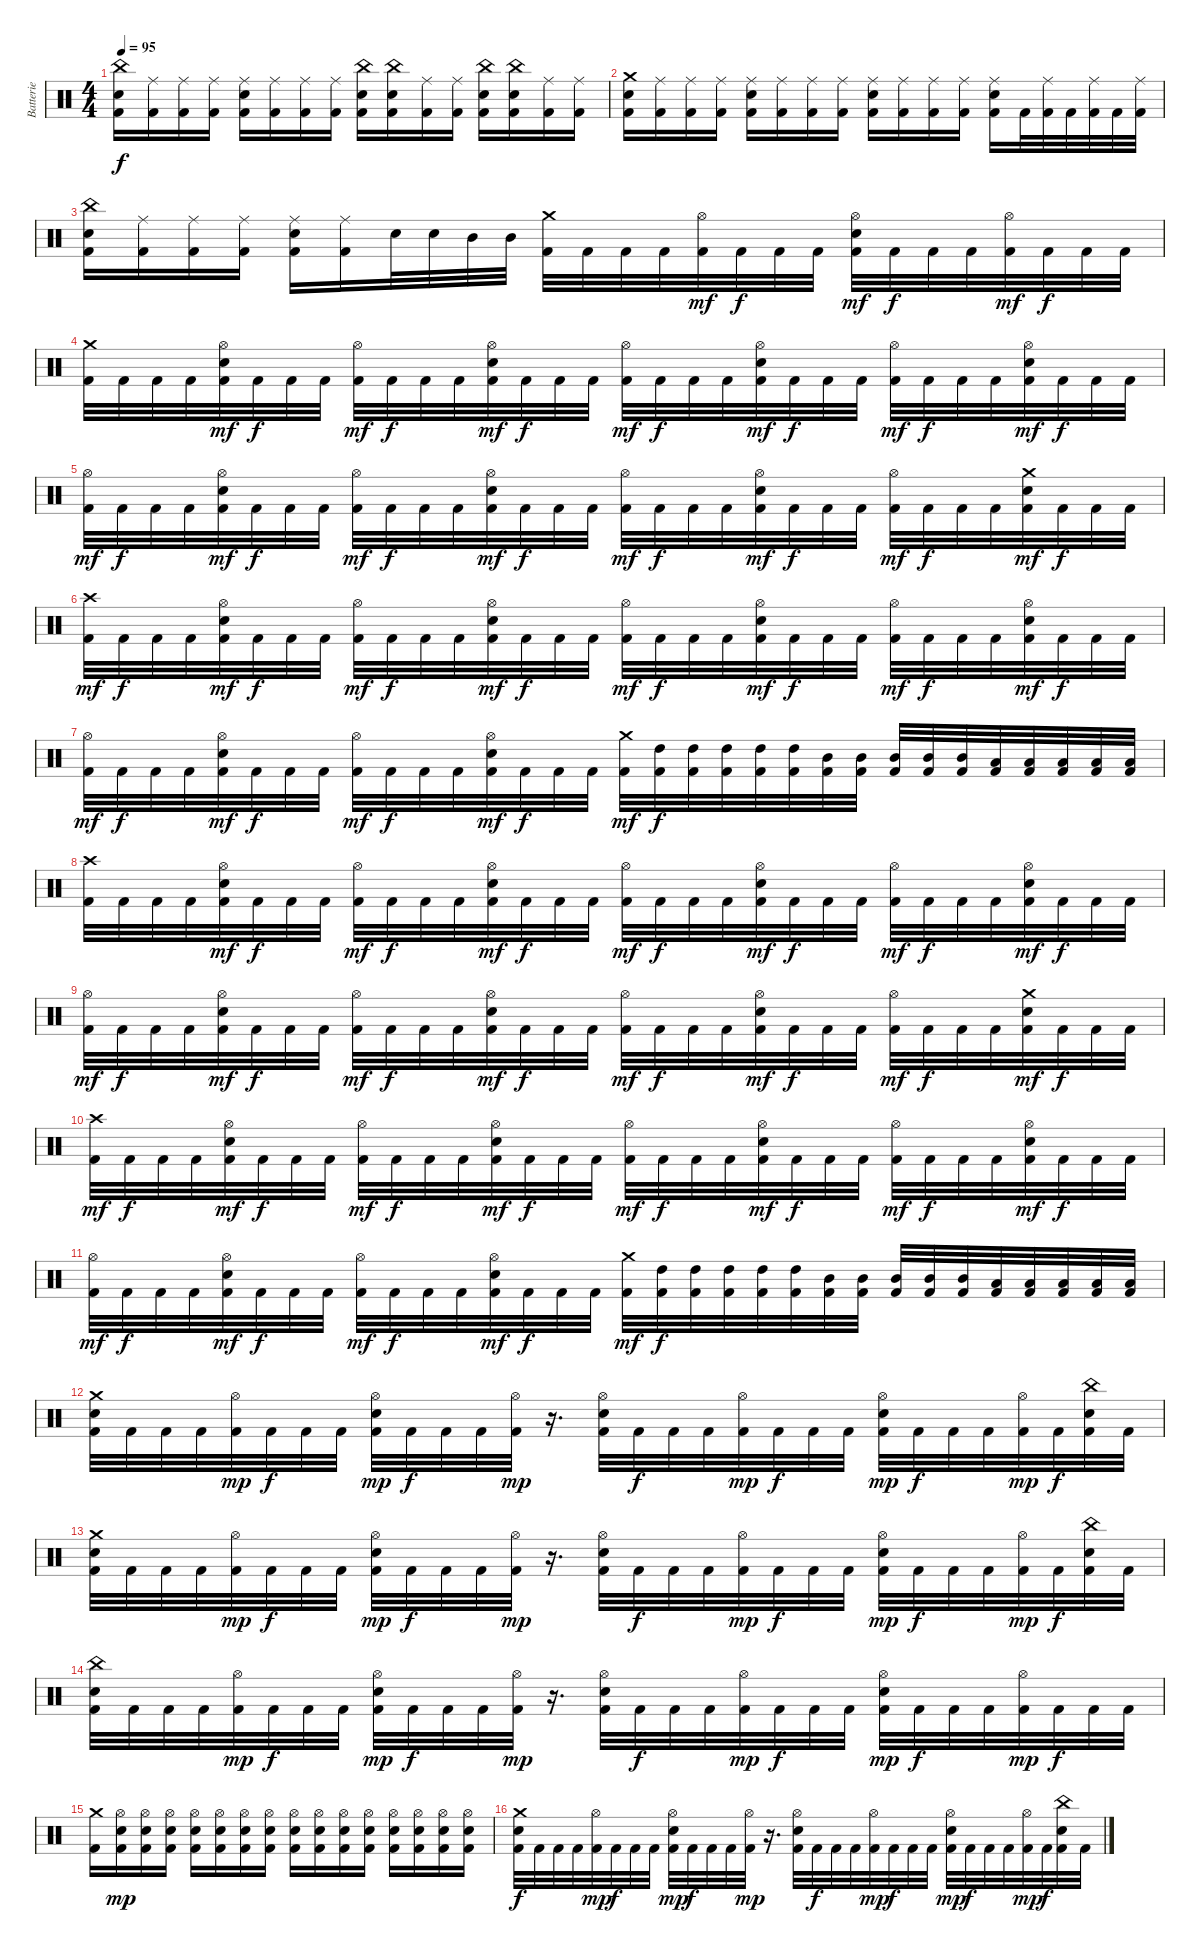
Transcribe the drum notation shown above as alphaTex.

\track ("Batterie" "Batterie") {instrument percussion}
\staff {score}
\articulation defaults
\ts (4 4)
\tempo 95
\clef neutral
\ks c
("China (hit)" "Electric Snare (hit)" "Kick (hit) 2").16{dy f} ("Ride (middle)" "Kick (hit) 2").16 ("Ride (middle)" "Kick (hit) 2").16 ("Ride (middle)" "Kick (hit) 2").16 ("Ride (middle)" "Electric Snare (hit)" "Kick (hit) 2").16 ("Ride (middle)" "Kick (hit) 2").16 ("Ride (middle)" "Kick (hit) 2").16 ("Ride (middle)" "Kick (hit) 2").16 ("China (hit)" "Electric Snare (hit)" "Kick (hit) 2").16 ("China (hit)" "Electric Snare (hit)" "Kick (hit) 2").16 ("Ride (middle)" "Kick (hit) 2").16 ("Ride (middle)" "Kick (hit) 2").16 ("China (hit)" "Electric Snare (hit)" "Kick (hit) 2").16 ("China (hit)" "Electric Snare (hit)" "Kick (hit) 2").16 ("Ride (middle)" "Kick (hit) 2").16 ("Ride (middle)" "Kick (hit) 2").16 |
("Crash medium (hit)" "Electric Snare (hit)" "Kick (hit) 2").16 ("Ride (middle)" "Kick (hit) 2").16 ("Ride (middle)" "Kick (hit) 2").16 ("Ride (middle)" "Kick (hit) 2").16 ("Ride (middle)" "Electric Snare (hit)" "Kick (hit) 2").16 ("Ride (middle)" "Kick (hit) 2").16 ("Ride (middle)" "Kick (hit) 2").16 ("Ride (middle)" "Kick (hit) 2").16 ("Ride (middle)" "Electric Snare (hit)" "Kick (hit) 2").16 ("Ride (middle)" "Kick (hit) 2").16 ("Ride (middle)" "Kick (hit) 2").16 ("Ride (middle)" "Kick (hit) 2").16 ("Ride (middle)" "Electric Snare (hit)" "Kick (hit) 2").16 "Kick (hit) 2".32 ("Ride (middle)" "Kick (hit) 2").32 "Kick (hit) 2".32 ("Ride (middle)" "Kick (hit) 2").32 "Kick (hit) 2".32 ("Ride (middle)" "Kick (hit) 2").32 |
("China (hit)" "Electric Snare (hit)" "Kick (hit) 2").16 ("Ride (middle)" "Kick (hit) 2").16 ("Ride (middle)" "Kick (hit) 2").16 ("Ride (middle)" "Kick (hit) 2").16 ("Ride (middle)" "Electric Snare (hit)" "Kick (hit) 2").16 ("Ride (middle)" "Kick (hit) 2").16 "Electric Snare (hit)".32 "Electric Snare (hit)".32 "Mid Tom (hit)".32 "Mid Tom (hit)".32 ("Crash medium (hit)" "Kick (hit) 2").32 "Kick (hit) 2".32 "Kick (hit) 2".32 "Kick (hit) 2".32 ("Hi-Hat (open)" "Kick (hit) 2").32{dy mf} "Kick (hit) 2".32{dy f} "Kick (hit) 2".32 "Kick (hit) 2".32 ("Hi-Hat (open)" "Electric Snare (hit)" "Kick (hit) 2").32{dy mf} "Kick (hit) 2".32{dy f} "Kick (hit) 2".32 "Kick (hit) 2".32 ("Hi-Hat (open)" "Kick (hit) 2").32{dy mf} "Kick (hit) 2".32{dy f} "Kick (hit) 2".32 "Kick (hit) 2".32 |
("Crash medium (hit)" "Kick (hit) 2").32 "Kick (hit) 2".32 "Kick (hit) 2".32 "Kick (hit) 2".32 ("Hi-Hat (open)" "Electric Snare (hit)" "Kick (hit) 2").32{dy mf} "Kick (hit) 2".32{dy f} "Kick (hit) 2".32 "Kick (hit) 2".32 ("Hi-Hat (open)" "Kick (hit) 2").32{dy mf} "Kick (hit) 2".32{dy f} "Kick (hit) 2".32 "Kick (hit) 2".32 ("Hi-Hat (open)" "Electric Snare (hit)" "Kick (hit) 2").32{dy mf} "Kick (hit) 2".32{dy f} "Kick (hit) 2".32 "Kick (hit) 2".32 ("Hi-Hat (open)" "Kick (hit) 2").32{dy mf} "Kick (hit) 2".32{dy f} "Kick (hit) 2".32 "Kick (hit) 2".32 ("Hi-Hat (open)" "Electric Snare (hit)" "Kick (hit) 2").32{dy mf} "Kick (hit) 2".32{dy f} "Kick (hit) 2".32 "Kick (hit) 2".32 ("Hi-Hat (open)" "Kick (hit) 2").32{dy mf} "Kick (hit) 2".32{dy f} "Kick (hit) 2".32 "Kick (hit) 2".32 ("Hi-Hat (open)" "Electric Snare (hit)" "Kick (hit) 2").32{dy mf} "Kick (hit) 2".32{dy f} "Kick (hit) 2".32 "Kick (hit) 2".32 |
("Hi-Hat (open)" "Kick (hit) 2").32{dy mf} "Kick (hit) 2".32{dy f} "Kick (hit) 2".32 "Kick (hit) 2".32 ("Hi-Hat (open)" "Electric Snare (hit)" "Kick (hit) 2").32{dy mf} "Kick (hit) 2".32{dy f} "Kick (hit) 2".32 "Kick (hit) 2".32 ("Hi-Hat (open)" "Kick (hit) 2").32{dy mf} "Kick (hit) 2".32{dy f} "Kick (hit) 2".32 "Kick (hit) 2".32 ("Hi-Hat (open)" "Electric Snare (hit)" "Kick (hit) 2").32{dy mf} "Kick (hit) 2".32{dy f} "Kick (hit) 2".32 "Kick (hit) 2".32 ("Hi-Hat (open)" "Kick (hit) 2").32{dy mf} "Kick (hit) 2".32{dy f} "Kick (hit) 2".32 "Kick (hit) 2".32 ("Hi-Hat (open)" "Electric Snare (hit)" "Kick (hit) 2").32{dy mf} "Kick (hit) 2".32{dy f} "Kick (hit) 2".32 "Kick (hit) 2".32 ("Hi-Hat (open)" "Kick (hit) 2").32{dy mf} "Kick (hit) 2".32{dy f} "Kick (hit) 2".32 "Kick (hit) 2".32 ("Crash medium (hit)" "Electric Snare (hit)" "Kick (hit) 2").32{dy mf} "Kick (hit) 2".32{dy f} "Kick (hit) 2".32 "Kick (hit) 2".32 |
("Crash high (hit)" "Kick (hit) 2").32{dy mf} "Kick (hit) 2".32{dy f} "Kick (hit) 2".32 "Kick (hit) 2".32 ("Hi-Hat (open)" "Electric Snare (hit)" "Kick (hit) 2").32{dy mf} "Kick (hit) 2".32{dy f} "Kick (hit) 2".32 "Kick (hit) 2".32 ("Hi-Hat (open)" "Kick (hit) 2").32{dy mf} "Kick (hit) 2".32{dy f} "Kick (hit) 2".32 "Kick (hit) 2".32 ("Hi-Hat (open)" "Electric Snare (hit)" "Kick (hit) 2").32{dy mf} "Kick (hit) 2".32{dy f} "Kick (hit) 2".32 "Kick (hit) 2".32 ("Hi-Hat (open)" "Kick (hit) 2").32{dy mf} "Kick (hit) 2".32{dy f} "Kick (hit) 2".32 "Kick (hit) 2".32 ("Hi-Hat (open)" "Electric Snare (hit)" "Kick (hit) 2").32{dy mf} "Kick (hit) 2".32{dy f} "Kick (hit) 2".32 "Kick (hit) 2".32 ("Hi-Hat (open)" "Kick (hit) 2").32{dy mf} "Kick (hit) 2".32{dy f} "Kick (hit) 2".32 "Kick (hit) 2".32 ("Hi-Hat (open)" "Electric Snare (hit)" "Kick (hit) 2").32{dy mf} "Kick (hit) 2".32{dy f} "Kick (hit) 2".32 "Kick (hit) 2".32 |
("Hi-Hat (open)" "Kick (hit) 2").32{dy mf} "Kick (hit) 2".32{dy f} "Kick (hit) 2".32 "Kick (hit) 2".32 ("Hi-Hat (open)" "Electric Snare (hit)" "Kick (hit) 2").32{dy mf} "Kick (hit) 2".32{dy f} "Kick (hit) 2".32 "Kick (hit) 2".32 ("Hi-Hat (open)" "Kick (hit) 2").32{dy mf} "Kick (hit) 2".32{dy f} "Kick (hit) 2".32 "Kick (hit) 2".32 ("Hi-Hat (open)" "Electric Snare (hit)" "Kick (hit) 2").32{dy mf} "Kick (hit) 2".32{dy f} "Kick (hit) 2".32 "Kick (hit) 2".32 ("Crash medium (hit)" "Kick (hit) 2").32{dy mf} ("High Tom (hit)" "Kick (hit) 2").32{dy f} ("High Tom (hit)" "Kick (hit) 2").32 ("High Tom (hit)" "Kick (hit) 2").32 ("High Tom (hit)" "Kick (hit) 2").32 ("High Tom (hit)" "Kick (hit) 2").32 ("Mid Tom (hit)" "Kick (hit) 2").32 ("Mid Tom (hit)" "Kick (hit) 2").32 ("Mid Tom (hit)" "Kick (hit) 2").32 ("Mid Tom (hit)" "Kick (hit) 2").32 ("Mid Tom (hit)" "Kick (hit) 2").32 ("Low Tom (hit)" "Kick (hit) 2").32 ("Low Tom (hit)" "Kick (hit) 2").32 ("Low Tom (hit)" "Kick (hit) 2").32 ("Low Tom (hit)" "Kick (hit) 2").32 ("Low Tom (hit)" "Kick (hit) 2").32 |
("Crash high (hit)" "Kick (hit) 2").32 "Kick (hit) 2".32 "Kick (hit) 2".32 "Kick (hit) 2".32 ("Hi-Hat (open)" "Electric Snare (hit)" "Kick (hit) 2").32{dy mf} "Kick (hit) 2".32{dy f} "Kick (hit) 2".32 "Kick (hit) 2".32 ("Hi-Hat (open)" "Kick (hit) 2").32{dy mf} "Kick (hit) 2".32{dy f} "Kick (hit) 2".32 "Kick (hit) 2".32 ("Hi-Hat (open)" "Electric Snare (hit)" "Kick (hit) 2").32{dy mf} "Kick (hit) 2".32{dy f} "Kick (hit) 2".32 "Kick (hit) 2".32 ("Hi-Hat (open)" "Kick (hit) 2").32{dy mf} "Kick (hit) 2".32{dy f} "Kick (hit) 2".32 "Kick (hit) 2".32 ("Hi-Hat (open)" "Electric Snare (hit)" "Kick (hit) 2").32{dy mf} "Kick (hit) 2".32{dy f} "Kick (hit) 2".32 "Kick (hit) 2".32 ("Hi-Hat (open)" "Kick (hit) 2").32{dy mf} "Kick (hit) 2".32{dy f} "Kick (hit) 2".32 "Kick (hit) 2".32 ("Hi-Hat (open)" "Electric Snare (hit)" "Kick (hit) 2").32{dy mf} "Kick (hit) 2".32{dy f} "Kick (hit) 2".32 "Kick (hit) 2".32 |
("Hi-Hat (open)" "Kick (hit) 2").32{dy mf} "Kick (hit) 2".32{dy f} "Kick (hit) 2".32 "Kick (hit) 2".32 ("Hi-Hat (open)" "Electric Snare (hit)" "Kick (hit) 2").32{dy mf} "Kick (hit) 2".32{dy f} "Kick (hit) 2".32 "Kick (hit) 2".32 ("Hi-Hat (open)" "Kick (hit) 2").32{dy mf} "Kick (hit) 2".32{dy f} "Kick (hit) 2".32 "Kick (hit) 2".32 ("Hi-Hat (open)" "Electric Snare (hit)" "Kick (hit) 2").32{dy mf} "Kick (hit) 2".32{dy f} "Kick (hit) 2".32 "Kick (hit) 2".32 ("Hi-Hat (open)" "Kick (hit) 2").32{dy mf} "Kick (hit) 2".32{dy f} "Kick (hit) 2".32 "Kick (hit) 2".32 ("Hi-Hat (open)" "Electric Snare (hit)" "Kick (hit) 2").32{dy mf} "Kick (hit) 2".32{dy f} "Kick (hit) 2".32 "Kick (hit) 2".32 ("Hi-Hat (open)" "Kick (hit) 2").32{dy mf} "Kick (hit) 2".32{dy f} "Kick (hit) 2".32 "Kick (hit) 2".32 ("Crash medium (hit)" "Electric Snare (hit)" "Kick (hit) 2").32{dy mf} "Kick (hit) 2".32{dy f} "Kick (hit) 2".32 "Kick (hit) 2".32 |
("Crash high (hit)" "Kick (hit) 2").32{dy mf} "Kick (hit) 2".32{dy f} "Kick (hit) 2".32 "Kick (hit) 2".32 ("Hi-Hat (open)" "Electric Snare (hit)" "Kick (hit) 2").32{dy mf} "Kick (hit) 2".32{dy f} "Kick (hit) 2".32 "Kick (hit) 2".32 ("Hi-Hat (open)" "Kick (hit) 2").32{dy mf} "Kick (hit) 2".32{dy f} "Kick (hit) 2".32 "Kick (hit) 2".32 ("Hi-Hat (open)" "Electric Snare (hit)" "Kick (hit) 2").32{dy mf} "Kick (hit) 2".32{dy f} "Kick (hit) 2".32 "Kick (hit) 2".32 ("Hi-Hat (open)" "Kick (hit) 2").32{dy mf} "Kick (hit) 2".32{dy f} "Kick (hit) 2".32 "Kick (hit) 2".32 ("Hi-Hat (open)" "Electric Snare (hit)" "Kick (hit) 2").32{dy mf} "Kick (hit) 2".32{dy f} "Kick (hit) 2".32 "Kick (hit) 2".32 ("Hi-Hat (open)" "Kick (hit) 2").32{dy mf} "Kick (hit) 2".32{dy f} "Kick (hit) 2".32 "Kick (hit) 2".32 ("Hi-Hat (open)" "Electric Snare (hit)" "Kick (hit) 2").32{dy mf} "Kick (hit) 2".32{dy f} "Kick (hit) 2".32 "Kick (hit) 2".32 |
("Hi-Hat (open)" "Kick (hit) 2").32{dy mf} "Kick (hit) 2".32{dy f} "Kick (hit) 2".32 "Kick (hit) 2".32 ("Hi-Hat (open)" "Electric Snare (hit)" "Kick (hit) 2").32{dy mf} "Kick (hit) 2".32{dy f} "Kick (hit) 2".32 "Kick (hit) 2".32 ("Hi-Hat (open)" "Kick (hit) 2").32{dy mf} "Kick (hit) 2".32{dy f} "Kick (hit) 2".32 "Kick (hit) 2".32 ("Hi-Hat (open)" "Electric Snare (hit)" "Kick (hit) 2").32{dy mf} "Kick (hit) 2".32{dy f} "Kick (hit) 2".32 "Kick (hit) 2".32 ("Crash medium (hit)" "Kick (hit) 2").32{dy mf} ("High Tom (hit)" "Kick (hit) 2").32{dy f} ("High Tom (hit)" "Kick (hit) 2").32 ("High Tom (hit)" "Kick (hit) 2").32 ("High Tom (hit)" "Kick (hit) 2").32 ("High Tom (hit)" "Kick (hit) 2").32 ("Mid Tom (hit)" "Kick (hit) 2").32 ("Mid Tom (hit)" "Kick (hit) 2").32 ("Mid Tom (hit)" "Kick (hit) 2").32 ("Mid Tom (hit)" "Kick (hit) 2").32 ("Mid Tom (hit)" "Kick (hit) 2").32 ("Low Tom (hit)" "Kick (hit) 2").32 ("Low Tom (hit)" "Kick (hit) 2").32 ("Low Tom (hit)" "Kick (hit) 2").32 ("Low Tom (hit)" "Kick (hit) 2").32 ("Low Tom (hit)" "Kick (hit) 2").32 |
("Crash medium (hit)" "Electric Snare (hit)" "Kick (hit) 2").32 "Kick (hit) 2".32 "Kick (hit) 2".32 "Kick (hit) 2".32 ("Hi-Hat (open)" "Kick (hit) 2").32{dy mp} "Kick (hit) 2".32{dy f} "Kick (hit) 2".32 "Kick (hit) 2".32 ("Hi-Hat (open)" "Electric Snare (hit)" "Kick (hit) 2").32{dy mp} "Kick (hit) 2".32{dy f} "Kick (hit) 2".32 "Kick (hit) 2".32 ("Hi-Hat (open)" "Kick (hit) 2").32{dy mp} r.16{d} ("Hi-Hat (open)" "Electric Snare (hit)" "Kick (hit) 2").32 "Kick (hit) 2".32{dy f} "Kick (hit) 2".32 "Kick (hit) 2".32 ("Hi-Hat (open)" "Kick (hit) 2").32{dy mp} "Kick (hit) 2".32{dy f} "Kick (hit) 2".32 "Kick (hit) 2".32 ("Hi-Hat (open)" "Electric Snare (hit)" "Kick (hit) 2").32{dy mp} "Kick (hit) 2".32{dy f} "Kick (hit) 2".32 "Kick (hit) 2".32 ("Hi-Hat (open)" "Kick (hit) 2").32{dy mp} "Kick (hit) 2".32{dy f} ("China (hit)" "Electric Snare (hit)" "Kick (hit) 2").32 "Kick (hit) 2".32 |
("Crash medium (hit)" "Electric Snare (hit)" "Kick (hit) 2").32 "Kick (hit) 2".32 "Kick (hit) 2".32 "Kick (hit) 2".32 ("Hi-Hat (open)" "Kick (hit) 2").32{dy mp} "Kick (hit) 2".32{dy f} "Kick (hit) 2".32 "Kick (hit) 2".32 ("Hi-Hat (open)" "Electric Snare (hit)" "Kick (hit) 2").32{dy mp} "Kick (hit) 2".32{dy f} "Kick (hit) 2".32 "Kick (hit) 2".32 ("Hi-Hat (open)" "Kick (hit) 2").32{dy mp} r.16{d} ("Hi-Hat (open)" "Electric Snare (hit)" "Kick (hit) 2").32 "Kick (hit) 2".32{dy f} "Kick (hit) 2".32 "Kick (hit) 2".32 ("Hi-Hat (open)" "Kick (hit) 2").32{dy mp} "Kick (hit) 2".32{dy f} "Kick (hit) 2".32 "Kick (hit) 2".32 ("Hi-Hat (open)" "Electric Snare (hit)" "Kick (hit) 2").32{dy mp} "Kick (hit) 2".32{dy f} "Kick (hit) 2".32 "Kick (hit) 2".32 ("Hi-Hat (open)" "Kick (hit) 2").32{dy mp} "Kick (hit) 2".32{dy f} ("China (hit)" "Electric Snare (hit)" "Kick (hit) 2").32 "Kick (hit) 2".32 |
("China (hit)" "Electric Snare (hit)" "Kick (hit) 2").32 "Kick (hit) 2".32 "Kick (hit) 2".32 "Kick (hit) 2".32 ("Hi-Hat (open)" "Kick (hit) 2").32{dy mp} "Kick (hit) 2".32{dy f} "Kick (hit) 2".32 "Kick (hit) 2".32 ("Hi-Hat (open)" "Electric Snare (hit)" "Kick (hit) 2").32{dy mp} "Kick (hit) 2".32{dy f} "Kick (hit) 2".32 "Kick (hit) 2".32 ("Hi-Hat (open)" "Kick (hit) 2").32{dy mp} r.16{d} ("Hi-Hat (open)" "Electric Snare (hit)" "Kick (hit) 2").32 "Kick (hit) 2".32{dy f} "Kick (hit) 2".32 "Kick (hit) 2".32 ("Hi-Hat (open)" "Kick (hit) 2").32{dy mp} "Kick (hit) 2".32{dy f} "Kick (hit) 2".32 "Kick (hit) 2".32 ("Hi-Hat (open)" "Electric Snare (hit)" "Kick (hit) 2").32{dy mp} "Kick (hit) 2".32{dy f} "Kick (hit) 2".32 "Kick (hit) 2".32 ("Hi-Hat (open)" "Kick (hit) 2").32{dy mp} "Kick (hit) 2".32{dy f} "Kick (hit) 2".32 "Kick (hit) 2".32 |
("Crash medium (hit)" "Kick (hit) 2").16 ("Hi-Hat (open)" "Electric Snare (hit)" "Kick (hit) 2").16{dy mp} ("Hi-Hat (open)" "Electric Snare (hit)" "Kick (hit) 2").16 ("Hi-Hat (open)" "Electric Snare (hit)" "Kick (hit) 2").16 ("Hi-Hat (open)" "Electric Snare (hit)" "Kick (hit) 2").16 ("Hi-Hat (open)" "Electric Snare (hit)" "Kick (hit) 2").16 ("Hi-Hat (open)" "Electric Snare (hit)" "Kick (hit) 2").16 ("Hi-Hat (open)" "Electric Snare (hit)" "Kick (hit) 2").16 ("Hi-Hat (open)" "Electric Snare (hit)" "Kick (hit) 2").16 ("Hi-Hat (open)" "Electric Snare (hit)" "Kick (hit) 2").16 ("Hi-Hat (open)" "Electric Snare (hit)" "Kick (hit) 2").16 ("Hi-Hat (open)" "Electric Snare (hit)" "Kick (hit) 2").16 ("Hi-Hat (open)" "Electric Snare (hit)" "Kick (hit) 2").16 ("Hi-Hat (open)" "Electric Snare (hit)" "Kick (hit) 2").16 ("Hi-Hat (open)" "Electric Snare (hit)" "Kick (hit) 2").16 ("Hi-Hat (open)" "Electric Snare (hit)" "Kick (hit) 2").16 |
("Crash medium (hit)" "Electric Snare (hit)" "Kick (hit) 2").32{dy f} "Kick (hit) 2".32 "Kick (hit) 2".32 "Kick (hit) 2".32 ("Hi-Hat (open)" "Kick (hit) 2").32{dy mp} "Kick (hit) 2".32{dy f} "Kick (hit) 2".32 "Kick (hit) 2".32 ("Hi-Hat (open)" "Electric Snare (hit)" "Kick (hit) 2").32{dy mp} "Kick (hit) 2".32{dy f} "Kick (hit) 2".32 "Kick (hit) 2".32 ("Hi-Hat (open)" "Kick (hit) 2").32{dy mp} r.16{d} ("Hi-Hat (open)" "Electric Snare (hit)" "Kick (hit) 2").32 "Kick (hit) 2".32{dy f} "Kick (hit) 2".32 "Kick (hit) 2".32 ("Hi-Hat (open)" "Kick (hit) 2").32{dy mp} "Kick (hit) 2".32{dy f} "Kick (hit) 2".32 "Kick (hit) 2".32 ("Hi-Hat (open)" "Electric Snare (hit)" "Kick (hit) 2").32{dy mp} "Kick (hit) 2".32{dy f} "Kick (hit) 2".32 "Kick (hit) 2".32 ("Hi-Hat (open)" "Kick (hit) 2").32{dy mp} "Kick (hit) 2".32{dy f} ("China (hit)" "Electric Snare (hit)" "Kick (hit) 2").32 "Kick (hit) 2".32
